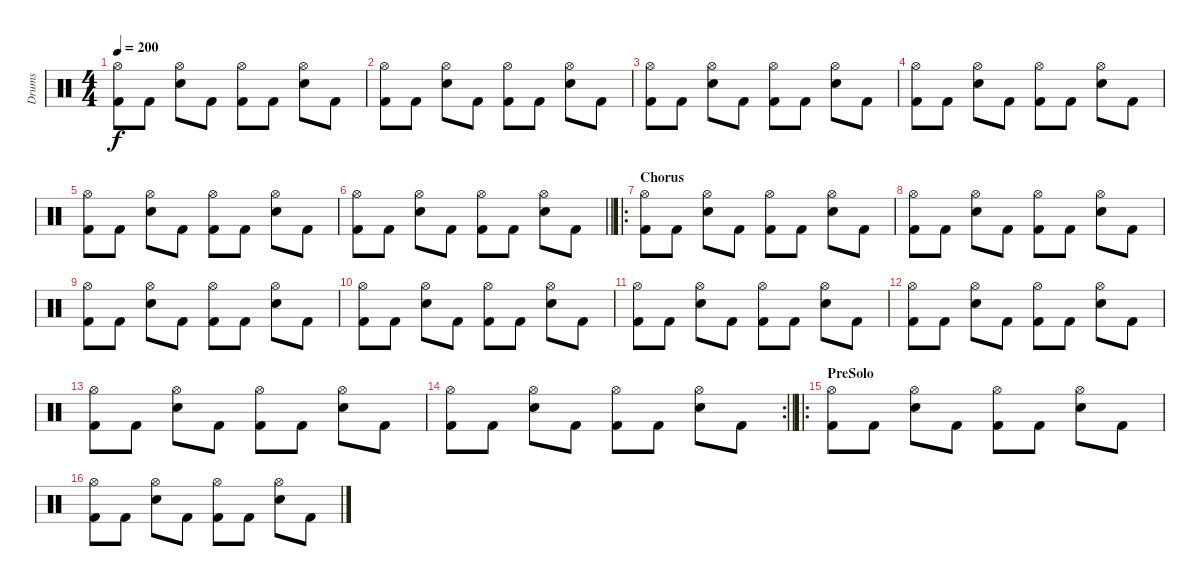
\track ("Drums" "Drums") {instrument percussion}
\staff {score}
\articulation defaults
\ts (4 4)
\tempo 200
\clef neutral
\ks c
("Kick (hit) 2" "Hi-Hat (open)").8{dy f} "Kick (hit) 2".8 ("Snare (hit) 2" "Hi-Hat (open)").8 "Kick (hit) 2".8 ("Kick (hit) 2" "Hi-Hat (open)").8 "Kick (hit) 2".8 ("Snare (hit) 2" "Hi-Hat (open)").8 "Kick (hit) 2".8 |
("Kick (hit) 2" "Hi-Hat (open)").8 "Kick (hit) 2".8 ("Snare (hit) 2" "Hi-Hat (open)").8 "Kick (hit) 2".8 ("Kick (hit) 2" "Hi-Hat (open)").8 "Kick (hit) 2".8 ("Snare (hit) 2" "Hi-Hat (open)").8 "Kick (hit) 2".8 |
("Kick (hit) 2" "Hi-Hat (open)").8 "Kick (hit) 2".8 ("Snare (hit) 2" "Hi-Hat (open)").8 "Kick (hit) 2".8 ("Kick (hit) 2" "Hi-Hat (open)").8 "Kick (hit) 2".8 ("Snare (hit) 2" "Hi-Hat (open)").8 "Kick (hit) 2".8 |
("Kick (hit) 2" "Hi-Hat (open)").8 "Kick (hit) 2".8 ("Snare (hit) 2" "Hi-Hat (open)").8 "Kick (hit) 2".8 ("Kick (hit) 2" "Hi-Hat (open)").8 "Kick (hit) 2".8 ("Snare (hit) 2" "Hi-Hat (open)").8 "Kick (hit) 2".8 |
("Kick (hit) 2" "Hi-Hat (open)").8 "Kick (hit) 2".8 ("Snare (hit) 2" "Hi-Hat (open)").8 "Kick (hit) 2".8 ("Kick (hit) 2" "Hi-Hat (open)").8 "Kick (hit) 2".8 ("Snare (hit) 2" "Hi-Hat (open)").8 "Kick (hit) 2".8 |
\barLineRight lightlight
("Kick (hit) 2" "Hi-Hat (open)").8 "Kick (hit) 2".8 ("Snare (hit) 2" "Hi-Hat (open)").8 "Kick (hit) 2".8 ("Kick (hit) 2" "Hi-Hat (open)").8 "Kick (hit) 2".8 ("Snare (hit) 2" "Hi-Hat (open)").8 "Kick (hit) 2".8 |
\ro
\section ("" "Chorus")
("Kick (hit) 2" "Hi-Hat (open)").8 "Kick (hit) 2".8 ("Snare (hit) 2" "Hi-Hat (open)").8 "Kick (hit) 2".8 ("Kick (hit) 2" "Hi-Hat (open)").8 "Kick (hit) 2".8 ("Snare (hit) 2" "Hi-Hat (open)").8 "Kick (hit) 2".8 |
("Kick (hit) 2" "Hi-Hat (open)").8 "Kick (hit) 2".8 ("Snare (hit) 2" "Hi-Hat (open)").8 "Kick (hit) 2".8 ("Kick (hit) 2" "Hi-Hat (open)").8 "Kick (hit) 2".8 ("Snare (hit) 2" "Hi-Hat (open)").8 "Kick (hit) 2".8 |
("Kick (hit) 2" "Hi-Hat (open)").8 "Kick (hit) 2".8 ("Snare (hit) 2" "Hi-Hat (open)").8 "Kick (hit) 2".8 ("Kick (hit) 2" "Hi-Hat (open)").8 "Kick (hit) 2".8 ("Snare (hit) 2" "Hi-Hat (open)").8 "Kick (hit) 2".8 |
("Kick (hit) 2" "Hi-Hat (open)").8 "Kick (hit) 2".8 ("Snare (hit) 2" "Hi-Hat (open)").8 "Kick (hit) 2".8 ("Kick (hit) 2" "Hi-Hat (open)").8 "Kick (hit) 2".8 ("Snare (hit) 2" "Hi-Hat (open)").8 "Kick (hit) 2".8 |
("Kick (hit) 2" "Hi-Hat (open)").8 "Kick (hit) 2".8 ("Snare (hit) 2" "Hi-Hat (open)").8 "Kick (hit) 2".8 ("Kick (hit) 2" "Hi-Hat (open)").8 "Kick (hit) 2".8 ("Snare (hit) 2" "Hi-Hat (open)").8 "Kick (hit) 2".8 |
("Kick (hit) 2" "Hi-Hat (open)").8 "Kick (hit) 2".8 ("Snare (hit) 2" "Hi-Hat (open)").8 "Kick (hit) 2".8 ("Kick (hit) 2" "Hi-Hat (open)").8 "Kick (hit) 2".8 ("Snare (hit) 2" "Hi-Hat (open)").8 "Kick (hit) 2".8 |
("Kick (hit) 2" "Hi-Hat (open)").8 "Kick (hit) 2".8 ("Snare (hit) 2" "Hi-Hat (open)").8 "Kick (hit) 2".8 ("Kick (hit) 2" "Hi-Hat (open)").8 "Kick (hit) 2".8 ("Snare (hit) 2" "Hi-Hat (open)").8 "Kick (hit) 2".8 |
\rc 2
\barLineRight lightlight
("Kick (hit) 2" "Hi-Hat (open)").8 "Kick (hit) 2".8 ("Snare (hit) 2" "Hi-Hat (open)").8 "Kick (hit) 2".8 ("Kick (hit) 2" "Hi-Hat (open)").8 "Kick (hit) 2".8 ("Snare (hit) 2" "Hi-Hat (open)").8 "Kick (hit) 2".8 |
\ro
\section ("" "PreSolo")
("Kick (hit) 2" "Hi-Hat (open)").8 "Kick (hit) 2".8 ("Snare (hit) 2" "Hi-Hat (open)").8 "Kick (hit) 2".8 ("Kick (hit) 2" "Hi-Hat (open)").8 "Kick (hit) 2".8 ("Snare (hit) 2" "Hi-Hat (open)").8 "Kick (hit) 2".8 |
("Kick (hit) 2" "Hi-Hat (open)").8 "Kick (hit) 2".8 ("Snare (hit) 2" "Hi-Hat (open)").8 "Kick (hit) 2".8 ("Kick (hit) 2" "Hi-Hat (open)").8 "Kick (hit) 2".8 ("Snare (hit) 2" "Hi-Hat (open)").8 "Kick (hit) 2".8
